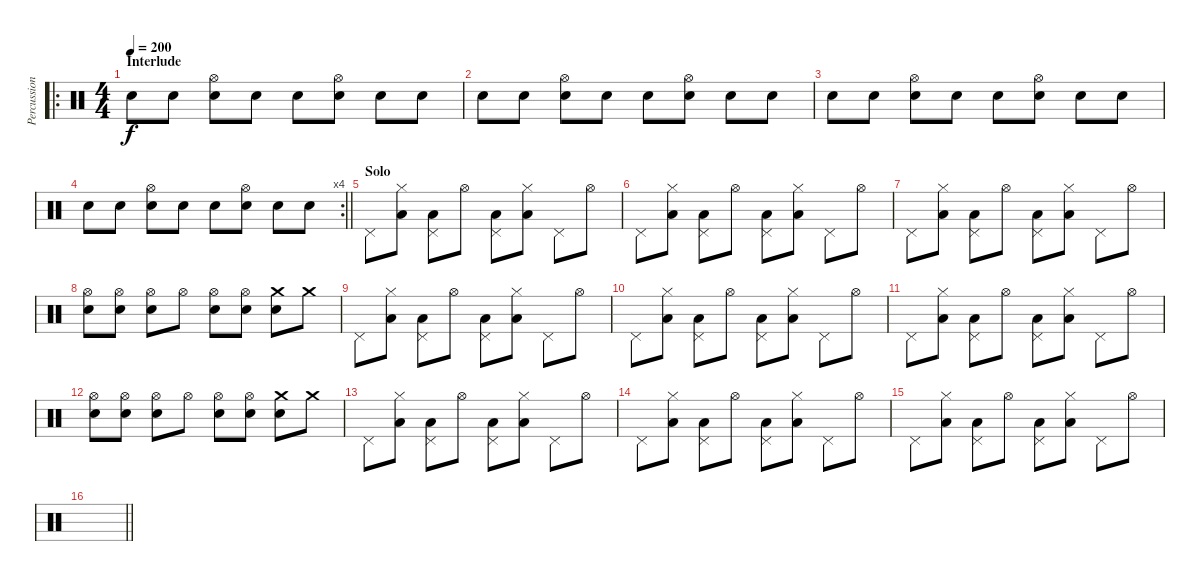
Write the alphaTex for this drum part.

\track ("Percussion" "Percussion") {instrument percussion}
\staff {score}
\articulation defaults
\ro
\ts (4 4)
\section ("" "Interlude")
\tempo 200
\clef neutral
\ks c "Electric Snare (hit)".8{dy f} "Electric Snare (hit)".8
("Electric Snare (hit)" "Hi-Hat (open)").8 "Electric Snare (hit)".8 "Electric Snare (hit)".8 ("Electric Snare (hit)" "Hi-Hat (open)").8 "Electric Snare (hit)".8 "Electric Snare (hit)".8 |
"Electric Snare (hit)".8 "Electric Snare (hit)".8 ("Electric Snare (hit)" "Hi-Hat (open)").8 "Electric Snare (hit)".8 "Electric Snare (hit)".8 ("Electric Snare (hit)" "Hi-Hat (open)").8 "Electric Snare (hit)".8 "Electric Snare (hit)".8 |
"Electric Snare (hit)".8 "Electric Snare (hit)".8 ("Electric Snare (hit)" "Hi-Hat (open)").8 "Electric Snare (hit)".8 "Electric Snare (hit)".8 ("Electric Snare (hit)" "Hi-Hat (open)").8 "Electric Snare (hit)".8 "Electric Snare (hit)".8 |
\rc 4
\barLineRight lightlight "Electric Snare (hit)".8 "Electric Snare (hit)".8
("Electric Snare (hit)" "Hi-Hat (open)").8 "Electric Snare (hit)".8 "Electric Snare (hit)".8 ("Electric Snare (hit)" "Hi-Hat (open)").8 "Electric Snare (hit)".8 "Electric Snare (hit)".8 |
\section ("" "Solo")
"Pedal Hi-Hat (hit)".8 ("Hi-Hat (closed)" "Low Tom (hit)").8 ("Pedal Hi-Hat (hit)" "Low Tom (hit)").8 "Hi-Hat (open)".8 ("Pedal Hi-Hat (hit)" "Low Tom (hit)").8 ("Hi-Hat (closed)" "Low Tom (hit)").8 "Pedal Hi-Hat (hit)".8 "Hi-Hat (open)".8 |
"Pedal Hi-Hat (hit)".8 ("Hi-Hat (closed)" "Low Tom (hit)").8 ("Pedal Hi-Hat (hit)" "Low Tom (hit)").8 "Hi-Hat (open)".8 ("Pedal Hi-Hat (hit)" "Low Tom (hit)").8 ("Hi-Hat (closed)" "Low Tom (hit)").8 "Pedal Hi-Hat (hit)".8 "Hi-Hat (open)".8 |
"Pedal Hi-Hat (hit)".8 ("Hi-Hat (closed)" "Low Tom (hit)").8 ("Pedal Hi-Hat (hit)" "Low Tom (hit)").8 "Hi-Hat (open)".8 ("Pedal Hi-Hat (hit)" "Low Tom (hit)").8 ("Hi-Hat (closed)" "Low Tom (hit)").8 "Pedal Hi-Hat (hit)".8 "Hi-Hat (open)".8 |
("Hi-Hat (open)" "Electric Snare (hit)").8 ("Hi-Hat (open)" "Electric Snare (hit)").8 ("Hi-Hat (open)" "Electric Snare (hit)").8 "Hi-Hat (open)".8 ("Hi-Hat (open)" "Electric Snare (hit)").8 ("Hi-Hat (open)" "Electric Snare (hit)").8 ("Crash medium (hit)" "Electric Snare (hit)").8 "Crash medium (hit)".8 |
"Pedal Hi-Hat (hit)".8 ("Hi-Hat (closed)" "Low Tom (hit)").8 ("Pedal Hi-Hat (hit)" "Low Tom (hit)").8 "Hi-Hat (open)".8 ("Pedal Hi-Hat (hit)" "Low Tom (hit)").8 ("Hi-Hat (closed)" "Low Tom (hit)").8 "Pedal Hi-Hat (hit)".8 "Hi-Hat (open)".8 |
"Pedal Hi-Hat (hit)".8 ("Hi-Hat (closed)" "Low Tom (hit)").8 ("Pedal Hi-Hat (hit)" "Low Tom (hit)").8 "Hi-Hat (open)".8 ("Pedal Hi-Hat (hit)" "Low Tom (hit)").8 ("Hi-Hat (closed)" "Low Tom (hit)").8 "Pedal Hi-Hat (hit)".8 "Hi-Hat (open)".8 |
"Pedal Hi-Hat (hit)".8 ("Hi-Hat (closed)" "Low Tom (hit)").8 ("Pedal Hi-Hat (hit)" "Low Tom (hit)").8 "Hi-Hat (open)".8 ("Pedal Hi-Hat (hit)" "Low Tom (hit)").8 ("Hi-Hat (closed)" "Low Tom (hit)").8 "Pedal Hi-Hat (hit)".8 "Hi-Hat (open)".8 |
("Hi-Hat (open)" "Electric Snare (hit)").8 ("Hi-Hat (open)" "Electric Snare (hit)").8 ("Hi-Hat (open)" "Electric Snare (hit)").8 "Hi-Hat (open)".8 ("Hi-Hat (open)" "Electric Snare (hit)").8 ("Hi-Hat (open)" "Electric Snare (hit)").8 ("Crash medium (hit)" "Electric Snare (hit)").8 "Crash medium (hit)".8 |
"Pedal Hi-Hat (hit)".8 ("Hi-Hat (closed)" "Low Tom (hit)").8 ("Pedal Hi-Hat (hit)" "Low Tom (hit)").8 "Hi-Hat (open)".8 ("Pedal Hi-Hat (hit)" "Low Tom (hit)").8 ("Hi-Hat (closed)" "Low Tom (hit)").8 "Pedal Hi-Hat (hit)".8 "Hi-Hat (open)".8 |
"Pedal Hi-Hat (hit)".8 ("Hi-Hat (closed)" "Low Tom (hit)").8 ("Pedal Hi-Hat (hit)" "Low Tom (hit)").8 "Hi-Hat (open)".8 ("Pedal Hi-Hat (hit)" "Low Tom (hit)").8 ("Hi-Hat (closed)" "Low Tom (hit)").8 "Pedal Hi-Hat (hit)".8 "Hi-Hat (open)".8 |
"Pedal Hi-Hat (hit)".8 ("Hi-Hat (closed)" "Low Tom (hit)").8 ("Pedal Hi-Hat (hit)" "Low Tom (hit)").8 "Hi-Hat (open)".8 ("Pedal Hi-Hat (hit)" "Low Tom (hit)").8 ("Hi-Hat (closed)" "Low Tom (hit)").8 "Pedal Hi-Hat (hit)".8 "Hi-Hat (open)".8 |
\barLineRight lightlight
